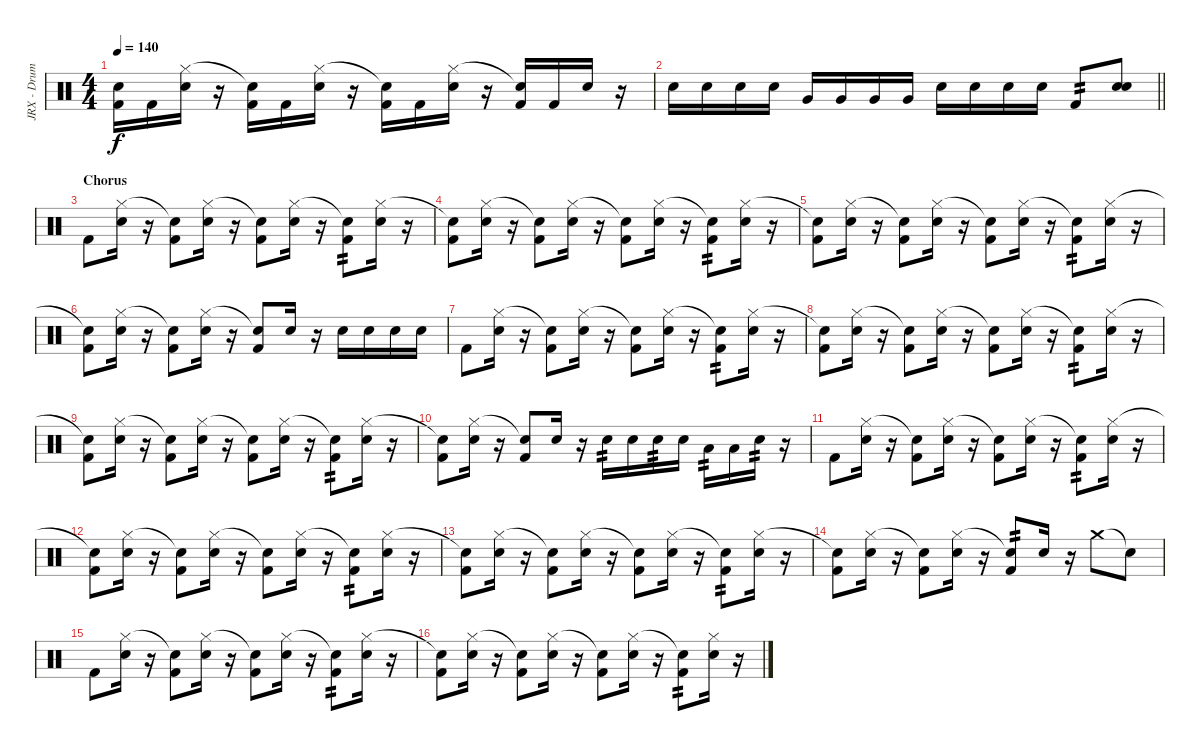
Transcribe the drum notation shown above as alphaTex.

\track ("JRX - Drum" "JRX - Drum") {instrument percussion}
\staff {score}
\articulation defaults
\ts (4 4)
\tempo 140
\clef neutral
\ks c
("Snare (hit)"{t} "Kick (hit) 2").16{dy f} "Kick (hit) 2".16 ("Hi-Hat (closed)" "Electric Snare (hit)").16 r.16 ("Snare (hit)"{t} "Kick (hit) 2").16 "Kick (hit) 2".16 ("Hi-Hat (closed)" "Electric Snare (hit)").16 r.16 ("Snare (hit)"{t} "Kick (hit) 2").16 "Kick (hit) 2".16 ("Hi-Hat (closed)" "Electric Snare (hit)").16 r.16 ("Snare (hit)"{t} "Kick (hit) 2").16 "Kick (hit) 2".16 "Electric Snare (hit)".16 r.16 |
\barLineRight lightlight "Electric Snare (hit)".16 "Electric Snare (hit)".16 "Electric Snare (hit)".16 "Electric Snare (hit)".16 "Very Low Tom (hit)".16 "Very Low Tom (hit)".16 "Very Low Tom (hit)".16 "Very Low Tom (hit)".16 "Electric Snare (hit)".16 "Electric Snare (hit)".16 "Electric Snare (hit)".16 "Electric Snare (hit)".16 "Kick (hit) 2".8{tp 2}
("Electric Snare (hit)" "Electric Snare (hit)").8 |
\section ("" "Chorus")
"Kick (hit) 2".8 ("Hi-Hat (closed)" "Electric Snare (hit)").16 r.16 ("Snare (hit)"{t} "Kick (hit) 2").8 ("Hi-Hat (closed)" "Electric Snare (hit)").16 r.16 ("Snare (hit)"{t} "Kick (hit) 2").8 ("Hi-Hat (closed)" "Electric Snare (hit)").16 r.16 ("Snare (hit)"{t} "Kick (hit) 2").8{tp 2} ("Hi-Hat (closed)" "Electric Snare (hit)").16 r.16 |
("Snare (hit)"{t} "Kick (hit) 2").8 ("Hi-Hat (closed)" "Electric Snare (hit)").16 r.16 ("Snare (hit)"{t} "Kick (hit) 2").8 ("Hi-Hat (closed)" "Electric Snare (hit)").16 r.16 ("Snare (hit)"{t} "Kick (hit) 2").8 ("Hi-Hat (closed)" "Electric Snare (hit)").16 r.16 ("Snare (hit)"{t} "Kick (hit) 2").8{tp 2} ("Hi-Hat (closed)" "Electric Snare (hit)").16 r.16 |
("Snare (hit)"{t} "Kick (hit) 2").8 ("Hi-Hat (closed)" "Electric Snare (hit)").16 r.16 ("Snare (hit)"{t} "Kick (hit) 2").8 ("Hi-Hat (closed)" "Electric Snare (hit)").16 r.16 ("Snare (hit)"{t} "Kick (hit) 2").8 ("Hi-Hat (closed)" "Electric Snare (hit)").16 r.16 ("Snare (hit)"{t} "Kick (hit) 2").8{tp 2} ("Hi-Hat (closed)" "Electric Snare (hit)").16 r.16 |
("Snare (hit)"{t} "Kick (hit) 2").8 ("Hi-Hat (closed)" "Electric Snare (hit)").16 r.16 ("Snare (hit)"{t} "Kick (hit) 2").8 ("Hi-Hat (closed)" "Electric Snare (hit)").16 r.16 ("Snare (hit)"{t} "Kick (hit) 2").8 "Electric Snare (hit)".16 r.16 "Electric Snare (hit)".16 "Electric Snare (hit)".16 "Electric Snare (hit)".16 "Electric Snare (hit)".16 |
"Kick (hit) 2".8 ("Hi-Hat (closed)" "Electric Snare (hit)").16 r.16 ("Snare (hit)"{t} "Kick (hit) 2").8 ("Hi-Hat (closed)" "Electric Snare (hit)").16 r.16 ("Snare (hit)"{t} "Kick (hit) 2").8 ("Hi-Hat (closed)" "Electric Snare (hit)").16 r.16 ("Snare (hit)"{t} "Kick (hit) 2").8{tp 2} ("Hi-Hat (closed)" "Electric Snare (hit)").16 r.16 |
("Snare (hit)"{t} "Kick (hit) 2").8 ("Hi-Hat (closed)" "Electric Snare (hit)").16 r.16 ("Snare (hit)"{t} "Kick (hit) 2").8 ("Hi-Hat (closed)" "Electric Snare (hit)").16 r.16 ("Snare (hit)"{t} "Kick (hit) 2").8 ("Hi-Hat (closed)" "Electric Snare (hit)").16 r.16 ("Snare (hit)"{t} "Kick (hit) 2").8{tp 2} ("Hi-Hat (closed)" "Electric Snare (hit)").16 r.16 |
("Snare (hit)"{t} "Kick (hit) 2").8 ("Hi-Hat (closed)" "Electric Snare (hit)").16 r.16 ("Snare (hit)"{t} "Kick (hit) 2").8 ("Hi-Hat (closed)" "Electric Snare (hit)").16 r.16 ("Snare (hit)"{t} "Kick (hit) 2").8 ("Hi-Hat (closed)" "Electric Snare (hit)").16 r.16 ("Snare (hit)"{t} "Kick (hit) 2").8{tp 2} ("Hi-Hat (closed)" "Electric Snare (hit)").16 r.16 |
("Snare (hit)"{t} "Kick (hit) 2").8 ("Hi-Hat (closed)" "Electric Snare (hit)").16 r.16 ("Snare (hit)"{t} "Kick (hit) 2").8 "Electric Snare (hit)".16 r.16 "Electric Snare (hit)".16{tp 2} "Electric Snare (hit)".16 "Electric Snare (hit)".16{tp 2} "Electric Snare (hit)".16 "Low Floor Tom (hit)".16{tp 2} "Low Floor Tom (hit)".16 "Electric Snare (hit)".16{tp 2} r.16 |
"Kick (hit) 2".8 ("Hi-Hat (closed)" "Electric Snare (hit)").16 r.16 ("Snare (hit)"{t} "Kick (hit) 2").8 ("Hi-Hat (closed)" "Electric Snare (hit)").16 r.16 ("Snare (hit)"{t} "Kick (hit) 2").8 ("Hi-Hat (closed)" "Electric Snare (hit)").16 r.16 ("Snare (hit)"{t} "Kick (hit) 2").8{tp 2} ("Hi-Hat (closed)" "Electric Snare (hit)").16 r.16 |
("Snare (hit)"{t} "Kick (hit) 2").8 ("Hi-Hat (closed)" "Electric Snare (hit)").16 r.16 ("Snare (hit)"{t} "Kick (hit) 2").8 ("Hi-Hat (closed)" "Electric Snare (hit)").16 r.16 ("Snare (hit)"{t} "Kick (hit) 2").8 ("Hi-Hat (closed)" "Electric Snare (hit)").16 r.16 ("Snare (hit)"{t} "Kick (hit) 2").8{tp 2} ("Hi-Hat (closed)" "Electric Snare (hit)").16 r.16 |
("Snare (hit)"{t} "Kick (hit) 2").8 ("Hi-Hat (closed)" "Electric Snare (hit)").16 r.16 ("Snare (hit)"{t} "Kick (hit) 2").8 ("Hi-Hat (closed)" "Electric Snare (hit)").16 r.16 ("Snare (hit)"{t} "Kick (hit) 2").8 ("Hi-Hat (closed)" "Electric Snare (hit)").16 r.16 ("Snare (hit)"{t} "Kick (hit) 2").8{tp 2} ("Hi-Hat (closed)" "Electric Snare (hit)").16 r.16 |
("Snare (hit)"{t} "Kick (hit) 2").8 ("Hi-Hat (closed)" "Electric Snare (hit)").16 r.16 ("Snare (hit)"{t} "Kick (hit) 2").8 ("Hi-Hat (closed)" "Electric Snare (hit)").16 r.16 ("Snare (hit)"{t} "Kick (hit) 2").8{tp 2} "Electric Snare (hit)".16 r.16 "Crash medium (hit)".8 "Snare (hit)"{t}.8 |
"Kick (hit) 2".8 ("Hi-Hat (closed)" "Electric Snare (hit)").16 r.16 ("Snare (hit)"{t} "Kick (hit) 2").8 ("Hi-Hat (closed)" "Electric Snare (hit)").16 r.16 ("Snare (hit)"{t} "Kick (hit) 2").8 ("Hi-Hat (closed)" "Electric Snare (hit)").16 r.16 ("Snare (hit)"{t} "Kick (hit) 2").8{tp 2} ("Hi-Hat (closed)" "Electric Snare (hit)").16 r.16 |
("Snare (hit)"{t} "Kick (hit) 2").8 ("Hi-Hat (closed)" "Electric Snare (hit)").16 r.16 ("Snare (hit)"{t} "Kick (hit) 2").8 ("Hi-Hat (closed)" "Electric Snare (hit)").16 r.16 ("Snare (hit)"{t} "Kick (hit) 2").8 ("Hi-Hat (closed)" "Electric Snare (hit)").16 r.16 ("Snare (hit)"{t} "Kick (hit) 2").8{tp 2} ("Hi-Hat (closed)" "Electric Snare (hit)").16 r.16
